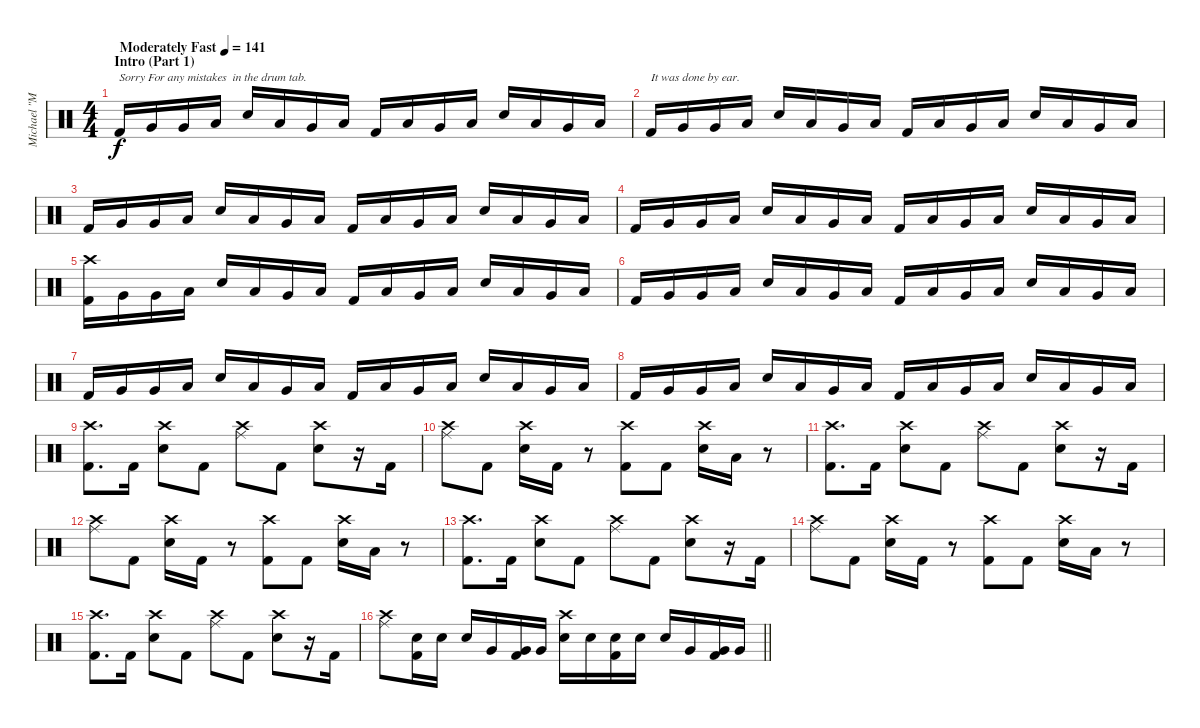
\track ("Michael \"Moose\" Thomas" "Michael \"M") {instrument percussion}
\staff {score}
\articulation defaults
\ts (4 4)
\section ("" "Intro (Part 1)")
\tempo (141 "Moderately Fast")
\clef neutral
\ks c "Kick (hit) 2".16{txt "Sorry For any mistakes  in the drum tab." dy f} "Very Low Tom (hit)".16 "Very Low Tom (hit)".16 "Low Floor Tom (hit)".16 "Snare (hit) 2".16 "Low Floor Tom (hit)".16 "Very Low Tom (hit)".16 "Low Floor Tom (hit)".16 "Kick (hit) 2".16 "Low Tom (hit)".16 "Very Low Tom (hit)".16 "Low Floor Tom (hit)".16 "Snare (hit) 2".16 "Low Floor Tom (hit)".16 "Very Low Tom (hit)".16 "Low Floor Tom (hit)".16
|
"Kick (hit) 2".16{txt "It was done by ear."} "Very Low Tom (hit)".16 "Very Low Tom (hit)".16 "Low Floor Tom (hit)".16 "Snare (hit) 2".16 "Low Floor Tom (hit)".16 "Very Low Tom (hit)".16 "Low Floor Tom (hit)".16 "Kick (hit) 2".16 "Low Tom (hit)".16 "Very Low Tom (hit)".16 "Low Floor Tom (hit)".16 "Snare (hit) 2".16 "Low Floor Tom (hit)".16 "Very Low Tom (hit)".16 "Low Floor Tom (hit)".16 |
"Kick (hit) 2".16 "Very Low Tom (hit)".16 "Very Low Tom (hit)".16 "Low Floor Tom (hit)".16 "Snare (hit) 2".16 "Low Floor Tom (hit)".16 "Very Low Tom (hit)".16 "Low Floor Tom (hit)".16 "Kick (hit) 2".16 "Low Tom (hit)".16 "Very Low Tom (hit)".16 "Low Floor Tom (hit)".16 "Snare (hit) 2".16 "Low Floor Tom (hit)".16 "Very Low Tom (hit)".16 "Low Floor Tom (hit)".16 |
"Kick (hit) 2".16 "Very Low Tom (hit)".16 "Very Low Tom (hit)".16 "Low Floor Tom (hit)".16 "Snare (hit) 2".16 "Low Floor Tom (hit)".16 "Very Low Tom (hit)".16 "Low Floor Tom (hit)".16 "Kick (hit) 2".16 "Low Tom (hit)".16 "Very Low Tom (hit)".16 "Low Floor Tom (hit)".16 "Snare (hit) 2".16 "Low Floor Tom (hit)".16 "Very Low Tom (hit)".16 "Low Floor Tom (hit)".16 |
("Crash high (hit)" "Kick (hit) 2").16 "Very Low Tom (hit)".16 "Very Low Tom (hit)".16 "Low Floor Tom (hit)".16 "Snare (hit) 2".16 "Low Floor Tom (hit)".16 "Very Low Tom (hit)".16 "Low Floor Tom (hit)".16 "Kick (hit) 2".16 "Low Tom (hit)".16 "Very Low Tom (hit)".16 "Low Floor Tom (hit)".16 "Snare (hit) 2".16 "Low Floor Tom (hit)".16 "Very Low Tom (hit)".16 "Low Floor Tom (hit)".16 |
"Kick (hit) 2".16 "Very Low Tom (hit)".16 "Very Low Tom (hit)".16 "Low Floor Tom (hit)".16 "Snare (hit) 2".16 "Low Floor Tom (hit)".16 "Very Low Tom (hit)".16 "Low Floor Tom (hit)".16 "Kick (hit) 2".16 "Low Tom (hit)".16 "Very Low Tom (hit)".16 "Low Floor Tom (hit)".16 "Snare (hit) 2".16 "Low Floor Tom (hit)".16 "Very Low Tom (hit)".16 "Low Floor Tom (hit)".16 |
"Kick (hit) 2".16 "Very Low Tom (hit)".16 "Very Low Tom (hit)".16 "Low Floor Tom (hit)".16 "Snare (hit) 2".16 "Low Floor Tom (hit)".16 "Very Low Tom (hit)".16 "Low Floor Tom (hit)".16 "Kick (hit) 2".16 "Low Tom (hit)".16 "Very Low Tom (hit)".16 "Low Floor Tom (hit)".16 "Snare (hit) 2".16 "Low Floor Tom (hit)".16 "Very Low Tom (hit)".16 "Low Floor Tom (hit)".16 |
"Kick (hit) 2".16 "Very Low Tom (hit)".16 "Very Low Tom (hit)".16 "Low Floor Tom (hit)".16 "Snare (hit) 2".16 "Low Floor Tom (hit)".16 "Very Low Tom (hit)".16 "Low Floor Tom (hit)".16 "Kick (hit) 2".16 "Low Tom (hit)".16 "Very Low Tom (hit)".16 "Low Floor Tom (hit)".16 "Snare (hit) 2".16 "Low Floor Tom (hit)".16 "Very Low Tom (hit)".16 "Low Floor Tom (hit)".16 |
("Crash high (hit)" "Kick (hit) 2").8{d} "Kick (hit) 2".16 ("Crash high (hit)" "Snare (hit) 2").8 "Kick (hit) 2".8 ("Crash high (hit)" "Ride (middle)").8 "Kick (hit) 2".8 ("Crash high (hit)" "Snare (hit) 2").8 r.16 "Kick (hit) 2".16 |
("Crash high (hit)" "Ride (middle)").8 "Kick (hit) 2".8 ("Crash high (hit)" "Snare (hit) 2").16 "Kick (hit) 2".16 r.8 ("Crash high (hit)" "Kick (hit) 2").8 "Kick (hit) 2".8 ("Crash high (hit)" "Snare (hit) 2").16 "Low Floor Tom (hit)".16 r.8 |
("Crash high (hit)" "Kick (hit) 2").8{d} "Kick (hit) 2".16 ("Crash high (hit)" "Snare (hit) 2").8 "Kick (hit) 2".8 ("Crash high (hit)" "Ride (middle)").8 "Kick (hit) 2".8 ("Crash high (hit)" "Snare (hit) 2").8 r.16 "Kick (hit) 2".16 |
("Crash high (hit)" "Ride (middle)").8 "Kick (hit) 2".8 ("Crash high (hit)" "Snare (hit) 2").16 "Kick (hit) 2".16 r.8 ("Crash high (hit)" "Kick (hit) 2").8 "Kick (hit) 2".8 ("Crash high (hit)" "Snare (hit) 2").16 "Low Floor Tom (hit)".16 r.8 |
("Crash high (hit)" "Kick (hit) 2").8{d} "Kick (hit) 2".16 ("Crash high (hit)" "Snare (hit) 2").8 "Kick (hit) 2".8 ("Crash high (hit)" "Ride (middle)").8 "Kick (hit) 2".8 ("Crash high (hit)" "Snare (hit) 2").8 r.16 "Kick (hit) 2".16 |
("Crash high (hit)" "Ride (middle)").8 "Kick (hit) 2".8 ("Crash high (hit)" "Snare (hit) 2").16 "Kick (hit) 2".16 r.8 ("Crash high (hit)" "Kick (hit) 2").8 "Kick (hit) 2".8 ("Crash high (hit)" "Snare (hit) 2").16 "Low Floor Tom (hit)".16 r.8 |
("Crash high (hit)" "Kick (hit) 2").8{d} "Kick (hit) 2".16 ("Crash high (hit)" "Snare (hit) 2").8 "Kick (hit) 2".8 ("Crash high (hit)" "Ride (middle)").8 "Kick (hit) 2".8 ("Crash high (hit)" "Snare (hit) 2").8 r.16 "Kick (hit) 2".16 |
\barLineRight lightlight
("Crash high (hit)" "Ride (middle)").8 ("Snare (hit) 2" "Kick (hit) 2").16 "Snare (hit) 2".16 "Snare (hit) 2".16 "Very Low Tom (hit)".16 ("Very Low Tom (hit)" "Kick (hit) 2").16 "Very Low Tom (hit)".16 ("Crash high (hit)" "Snare (hit) 2").16 "Snare (hit) 2".16 ("Snare (hit) 2" "Kick (hit) 2").16 "Snare (hit) 2".16 "Snare (hit) 2".16 "Very Low Tom (hit)".16 ("Very Low Tom (hit)" "Kick (hit) 2").16 "Very Low Tom (hit)".16
